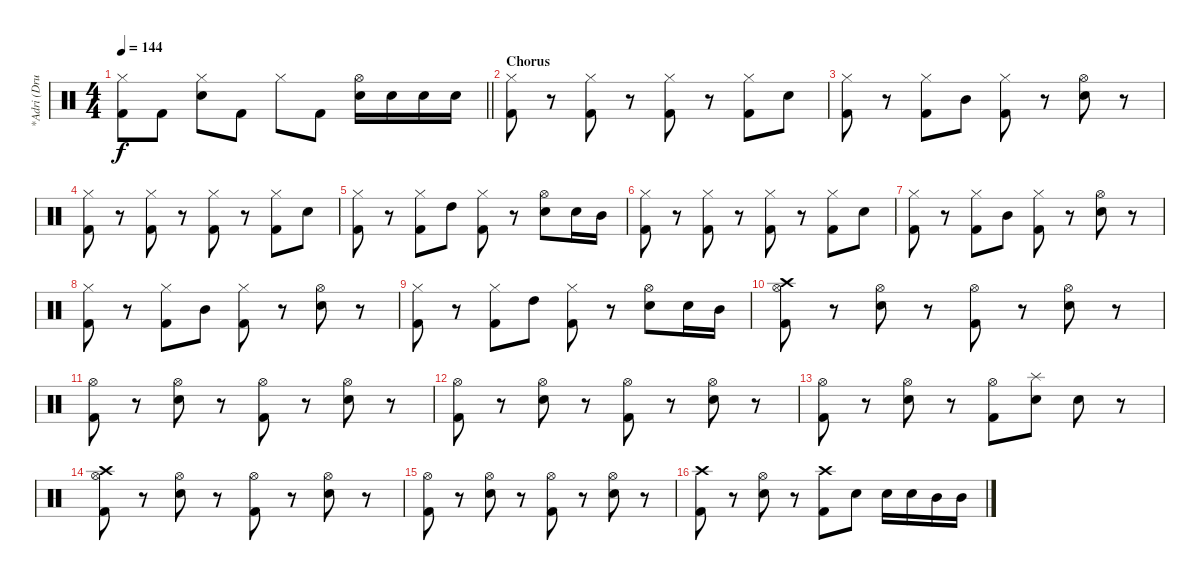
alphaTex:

\track ("*Adri (Drum)" "*Adri (Dru") {instrument percussion}
\staff {score}
\articulation defaults
\ts (4 4)
\tempo 144
\clef neutral
\barLineRight lightlight
\ks c
("Hi-Hat (closed)" "Kick (hit) 2").8{dy f} "Kick (hit) 2".8 ("Hi-Hat (closed)" "Electric Snare (hit)").8 "Kick (hit) 2".8 "Hi-Hat (closed)".8 "Kick (hit) 2".8 ("Hi-Hat (open)" "Electric Snare (hit)").16 "Electric Snare (hit)".16 "Electric Snare (hit)".16 "Electric Snare (hit)".16 |
\section ("" "Chorus")
("Hi-Hat (closed)" "Kick (hit) 2").8 r.8 ("Hi-Hat (closed)" "Kick (hit) 2").8 r.8 ("Hi-Hat (closed)" "Kick (hit) 2").8 r.8 ("Hi-Hat (closed)" "Kick (hit) 2").8 "Electric Snare (hit)".8 |
("Hi-Hat (closed)" "Kick (hit) 2").8 r.8 ("Hi-Hat (closed)" "Kick (hit) 2").8 "Mid Tom (hit)".8 ("Hi-Hat (closed)" "Kick (hit) 2").8 r.8 ("Hi-Hat (open)" "Electric Snare (hit)").8 r.8 |
("Hi-Hat (closed)" "Kick (hit) 2").8 r.8 ("Hi-Hat (closed)" "Kick (hit) 2").8 r.8 ("Hi-Hat (closed)" "Kick (hit) 2").8 r.8 ("Hi-Hat (closed)" "Kick (hit) 2").8 "Electric Snare (hit)".8 |
("Hi-Hat (closed)" "Kick (hit) 2").8 r.8 ("Hi-Hat (closed)" "Kick (hit) 2").8 "High Tom (hit)".8 ("Hi-Hat (closed)" "Kick (hit) 2").8 r.8 ("Hi-Hat (open)" "Electric Snare (hit)").8 "Electric Snare (hit)".16 "Mid Tom (hit)".16 |
("Hi-Hat (closed)" "Kick (hit) 2").8 r.8 ("Hi-Hat (closed)" "Kick (hit) 2").8 r.8 ("Hi-Hat (closed)" "Kick (hit) 2").8 r.8 ("Hi-Hat (closed)" "Kick (hit) 2").8 "Electric Snare (hit)".8 |
("Hi-Hat (closed)" "Kick (hit) 2").8 r.8 ("Hi-Hat (closed)" "Kick (hit) 2").8 "Mid Tom (hit)".8 ("Hi-Hat (closed)" "Kick (hit) 2").8 r.8 ("Hi-Hat (open)" "Electric Snare (hit)").8 r.8 |
("Hi-Hat (closed)" "Kick (hit) 2").8 r.8 ("Hi-Hat (closed)" "Kick (hit) 2").8 "Mid Tom (hit)".8 ("Hi-Hat (closed)" "Kick (hit) 2").8 r.8 ("Hi-Hat (open)" "Electric Snare (hit)").8 r.8 |
("Hi-Hat (closed)" "Kick (hit) 2").8 r.8 ("Hi-Hat (closed)" "Kick (hit) 2").8 "High Tom (hit)".8 ("Hi-Hat (closed)" "Kick (hit) 2").8 r.8 ("Hi-Hat (open)" "Electric Snare (hit)").8 "Electric Snare (hit)".16 "Mid Tom (hit)".16 |
("Crash high (hit)" "Hi-Hat (open)" "Kick (hit) 2").8 r.8 ("Hi-Hat (open)" "Electric Snare (hit)").8 r.8 ("Hi-Hat (open)" "Kick (hit) 2").8 r.8 ("Hi-Hat (open)" "Electric Snare (hit)").8 r.8 |
("Hi-Hat (open)" "Kick (hit) 2").8 r.8 ("Hi-Hat (open)" "Electric Snare (hit)").8 r.8 ("Hi-Hat (open)" "Kick (hit) 2").8 r.8 ("Hi-Hat (open)" "Electric Snare (hit)").8 r.8 |
("Hi-Hat (open)" "Kick (hit) 2").8 r.8 ("Hi-Hat (open)" "Electric Snare (hit)").8 r.8 ("Hi-Hat (open)" "Kick (hit) 2").8 r.8 ("Hi-Hat (open)" "Electric Snare (hit)").8 r.8 |
("Hi-Hat (open)" "Kick (hit) 2").8 r.8 ("Hi-Hat (open)" "Electric Snare (hit)").8 r.8 ("Hi-Hat (open)" "Kick (hit) 2").8 ("Splash (hit)" "Electric Snare (hit)").8 "Electric Snare (hit)".8 r.8 |
("Crash high (hit)" "Hi-Hat (open)" "Kick (hit) 2").8 r.8 ("Hi-Hat (open)" "Electric Snare (hit)").8 r.8 ("Hi-Hat (open)" "Kick (hit) 2").8 r.8 ("Hi-Hat (open)" "Electric Snare (hit)").8 r.8 |
("Hi-Hat (open)" "Kick (hit) 2").8 r.8 ("Hi-Hat (open)" "Electric Snare (hit)").8 r.8 ("Hi-Hat (open)" "Kick (hit) 2").8 r.8 ("Hi-Hat (open)" "Electric Snare (hit)").8 r.8 |
("Crash high (hit)" "Kick (hit) 2").8 r.8 ("Hi-Hat (open)" "Electric Snare (hit)").8 r.8 ("Crash high (hit)" "Kick (hit) 2").8 "Electric Snare (hit)".8 "Electric Snare (hit)".16 "Electric Snare (hit)".16 "Mid Tom (hit)".16 "Mid Tom (hit)".16
